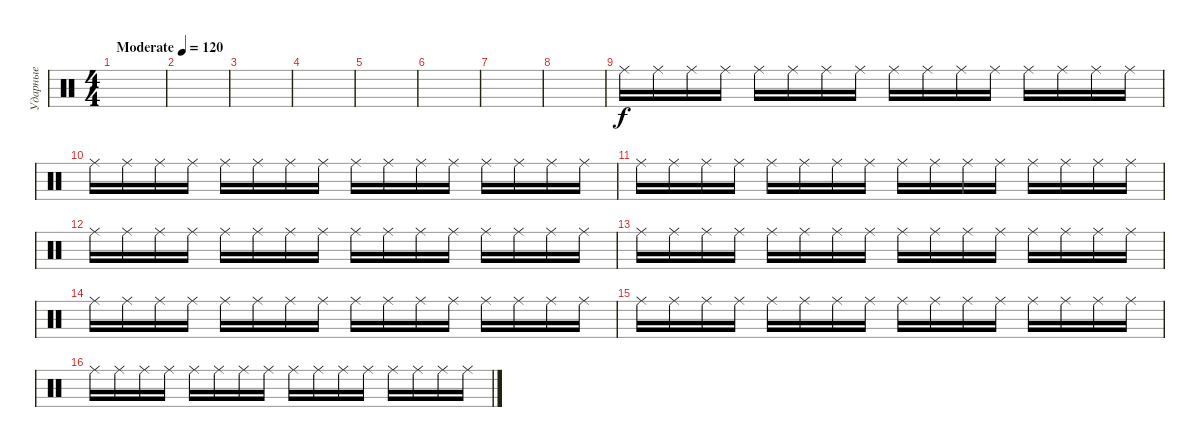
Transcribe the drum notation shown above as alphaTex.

\track ("Ударные" "Ударные") {instrument percussion}
\staff {score}
\articulation defaults
\ts (4 4)
\tempo (120 "Moderate")
\clef neutral
\ks c
|
|
|
|
|
|
|
|
"Ride (middle)".16 "Ride (middle)".16 "Ride (middle)".16 "Ride (middle)".16 "Ride (middle)".16 "Ride (middle)".16 "Ride (middle)".16 "Ride (middle)".16 "Ride (middle)".16 "Ride (middle)".16 "Ride (middle)".16 "Ride (middle)".16 "Ride (middle)".16 "Ride (middle)".16 "Ride (middle)".16 "Ride (middle)".16 |
"Ride (middle)".16 "Ride (middle)".16 "Ride (middle)".16 "Ride (middle)".16 "Ride (middle)".16 "Ride (middle)".16 "Ride (middle)".16 "Ride (middle)".16 "Ride (middle)".16 "Ride (middle)".16 "Ride (middle)".16 "Ride (middle)".16 "Ride (middle)".16 "Ride (middle)".16 "Ride (middle)".16 "Ride (middle)".16 |
"Ride (middle)".16 "Ride (middle)".16 "Ride (middle)".16 "Ride (middle)".16 "Ride (middle)".16 "Ride (middle)".16 "Ride (middle)".16 "Ride (middle)".16 "Ride (middle)".16 "Ride (middle)".16 "Ride (middle)".16 "Ride (middle)".16 "Ride (middle)".16 "Ride (middle)".16 "Ride (middle)".16 "Ride (middle)".16 |
"Ride (middle)".16 "Ride (middle)".16 "Ride (middle)".16 "Ride (middle)".16 "Ride (middle)".16 "Ride (middle)".16 "Ride (middle)".16 "Ride (middle)".16 "Ride (middle)".16 "Ride (middle)".16 "Ride (middle)".16 "Ride (middle)".16 "Ride (middle)".16 "Ride (middle)".16 "Ride (middle)".16 "Ride (middle)".16 |
"Ride (middle)".16 "Ride (middle)".16 "Ride (middle)".16 "Ride (middle)".16 "Ride (middle)".16 "Ride (middle)".16 "Ride (middle)".16 "Ride (middle)".16 "Ride (middle)".16 "Ride (middle)".16 "Ride (middle)".16 "Ride (middle)".16 "Ride (middle)".16 "Ride (middle)".16 "Ride (middle)".16 "Ride (middle)".16 |
"Ride (middle)".16 "Ride (middle)".16 "Ride (middle)".16 "Ride (middle)".16 "Ride (middle)".16 "Ride (middle)".16 "Ride (middle)".16 "Ride (middle)".16 "Ride (middle)".16 "Ride (middle)".16 "Ride (middle)".16 "Ride (middle)".16 "Ride (middle)".16 "Ride (middle)".16 "Ride (middle)".16 "Ride (middle)".16 |
"Ride (middle)".16 "Ride (middle)".16 "Ride (middle)".16 "Ride (middle)".16 "Ride (middle)".16 "Ride (middle)".16 "Ride (middle)".16 "Ride (middle)".16 "Ride (middle)".16 "Ride (middle)".16 "Ride (middle)".16 "Ride (middle)".16 "Ride (middle)".16 "Ride (middle)".16 "Ride (middle)".16 "Ride (middle)".16 |
"Ride (middle)".16 "Ride (middle)".16 "Ride (middle)".16 "Ride (middle)".16 "Ride (middle)".16 "Ride (middle)".16 "Ride (middle)".16 "Ride (middle)".16 "Ride (middle)".16 "Ride (middle)".16 "Ride (middle)".16 "Ride (middle)".16 "Ride (middle)".16 "Ride (middle)".16 "Ride (middle)".16 "Ride (middle)".16
